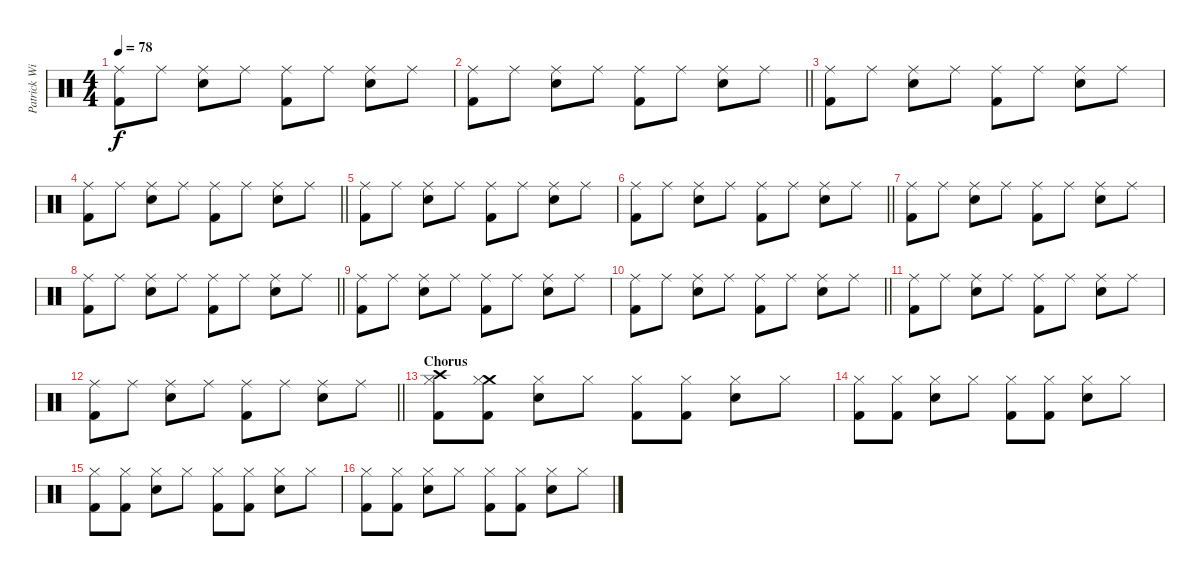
\track ("Patrick Wilson" "Patrick Wi") {instrument percussion}
\staff {score}
\articulation defaults
\ts (4 4)
\tempo 78
\clef neutral
\ks c
("Ride (middle)" "Kick (hit) 2").8{dy f} "Ride (middle)".8 ("Ride (middle)" "Snare (hit) 2").8 "Ride (middle)".8 ("Ride (middle)" "Kick (hit) 2").8 "Ride (middle)".8 ("Ride (middle)" "Snare (hit) 2").8 "Ride (middle)".8 |
\barLineRight lightlight
("Ride (middle)" "Kick (hit) 2").8 "Ride (middle)".8 ("Ride (middle)" "Snare (hit) 2").8 "Ride (middle)".8 ("Ride (middle)" "Kick (hit) 2").8 "Ride (middle)".8 ("Ride (middle)" "Snare (hit) 2").8 "Ride (middle)".8 |
("Ride (middle)" "Kick (hit) 2").8 "Ride (middle)".8 ("Ride (middle)" "Snare (hit) 2").8 "Ride (middle)".8 ("Ride (middle)" "Kick (hit) 2").8 "Ride (middle)".8 ("Ride (middle)" "Snare (hit) 2").8 "Ride (middle)".8 |
\barLineRight lightlight
("Ride (middle)" "Kick (hit) 2").8 "Ride (middle)".8 ("Ride (middle)" "Snare (hit) 2").8 "Ride (middle)".8 ("Ride (middle)" "Kick (hit) 2").8 "Ride (middle)".8 ("Ride (middle)" "Snare (hit) 2").8 "Ride (middle)".8 |
("Ride (middle)" "Kick (hit) 2").8 "Ride (middle)".8 ("Ride (middle)" "Snare (hit) 2").8 "Ride (middle)".8 ("Ride (middle)" "Kick (hit) 2").8 "Ride (middle)".8 ("Ride (middle)" "Snare (hit) 2").8 "Ride (middle)".8 |
\barLineRight lightlight
("Ride (middle)" "Kick (hit) 2").8 "Ride (middle)".8 ("Ride (middle)" "Snare (hit) 2").8 "Ride (middle)".8 ("Ride (middle)" "Kick (hit) 2").8 "Ride (middle)".8 ("Ride (middle)" "Snare (hit) 2").8 "Ride (middle)".8 |
("Ride (middle)" "Kick (hit) 2").8 "Ride (middle)".8 ("Ride (middle)" "Snare (hit) 2").8 "Ride (middle)".8 ("Ride (middle)" "Kick (hit) 2").8 "Ride (middle)".8 ("Ride (middle)" "Snare (hit) 2").8 "Ride (middle)".8 |
\barLineRight lightlight
("Ride (middle)" "Kick (hit) 2").8 "Ride (middle)".8 ("Ride (middle)" "Snare (hit) 2").8 "Ride (middle)".8 ("Ride (middle)" "Kick (hit) 2").8 "Ride (middle)".8 ("Ride (middle)" "Snare (hit) 2").8 "Ride (middle)".8 |
("Ride (middle)" "Kick (hit) 2").8 "Ride (middle)".8 ("Ride (middle)" "Snare (hit) 2").8 "Ride (middle)".8 ("Ride (middle)" "Kick (hit) 2").8 "Ride (middle)".8 ("Ride (middle)" "Snare (hit) 2").8 "Ride (middle)".8 |
\barLineRight lightlight
("Ride (middle)" "Kick (hit) 2").8 "Ride (middle)".8 ("Ride (middle)" "Snare (hit) 2").8 "Ride (middle)".8 ("Ride (middle)" "Kick (hit) 2").8 "Ride (middle)".8 ("Ride (middle)" "Snare (hit) 2").8 "Ride (middle)".8 |
("Ride (middle)" "Kick (hit) 2").8 "Ride (middle)".8 ("Ride (middle)" "Snare (hit) 2").8 "Ride (middle)".8 ("Ride (middle)" "Kick (hit) 2").8 "Ride (middle)".8 ("Ride (middle)" "Snare (hit) 2").8 "Ride (middle)".8 |
\barLineRight lightlight
("Ride (middle)" "Kick (hit) 2").8 "Ride (middle)".8 ("Ride (middle)" "Snare (hit) 2").8 "Ride (middle)".8 ("Ride (middle)" "Kick (hit) 2").8 "Ride (middle)".8 ("Ride (middle)" "Snare (hit) 2").8 "Ride (middle)".8 |
\section ("" "Chorus")
("Crash high (hit)" "Kick (hit) 2" "Hi-Hat (closed)").8 ("Crash medium (hit)" "Kick (hit) 2" "Hi-Hat (closed)").8 ("Snare (hit) 2" "Hi-Hat (closed)").8 "Hi-Hat (closed)".8 ("Kick (hit) 2" "Hi-Hat (closed)").8 ("Kick (hit) 2" "Hi-Hat (closed)").8 ("Snare (hit) 2" "Hi-Hat (closed)").8 "Hi-Hat (closed)".8 |
("Kick (hit) 2" "Hi-Hat (closed)").8 ("Kick (hit) 2" "Hi-Hat (closed)").8 ("Snare (hit) 2" "Hi-Hat (closed)").8 "Hi-Hat (closed)".8 ("Kick (hit) 2" "Hi-Hat (closed)").8 ("Kick (hit) 2" "Hi-Hat (closed)").8 ("Snare (hit) 2" "Hi-Hat (closed)").8 "Hi-Hat (closed)".8 |
("Kick (hit) 2" "Hi-Hat (closed)").8 ("Kick (hit) 2" "Hi-Hat (closed)").8 ("Snare (hit) 2" "Hi-Hat (closed)").8 "Hi-Hat (closed)".8 ("Kick (hit) 2" "Hi-Hat (closed)").8 ("Kick (hit) 2" "Hi-Hat (closed)").8 ("Snare (hit) 2" "Hi-Hat (closed)").8 "Hi-Hat (closed)".8 |
("Kick (hit) 2" "Hi-Hat (closed)").8 ("Kick (hit) 2" "Hi-Hat (closed)").8 ("Snare (hit) 2" "Hi-Hat (closed)").8 "Hi-Hat (closed)".8 ("Kick (hit) 2" "Hi-Hat (closed)").8 ("Kick (hit) 2" "Hi-Hat (closed)").8 ("Snare (hit) 2" "Hi-Hat (closed)").8 "Hi-Hat (closed)".8
